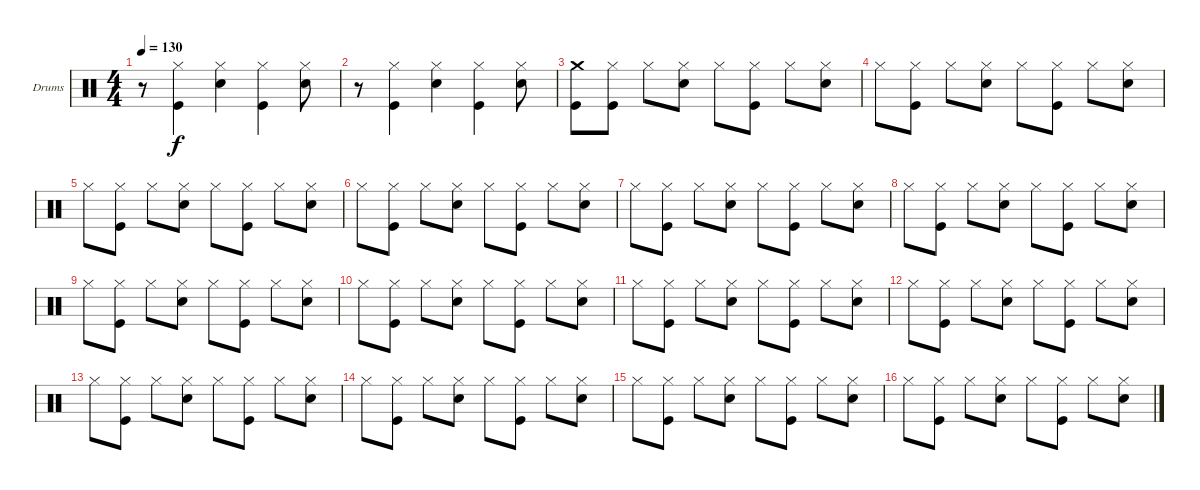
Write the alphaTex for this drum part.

\bracketExtendMode groupsimilarinstruments
\firstSystemTrackNameOrientation horizontal
\otherSystemsTrackNameOrientation horizontal
\track ("Drumkit" "Drums") {instrument percussion}
\staff {score}
\articulation defaults
\ts (4 4)
\tempo 130
\clef neutral
\ks c
r.8{dy f} ("Hi-Hat (closed)" "Kick (hit)").4 ("Hi-Hat (closed)" "Snare (hit) 2").4 ("Hi-Hat (closed)" "Kick (hit)").4 ("Hi-Hat (closed)" "Snare (hit) 2").8 |
r.8 ("Hi-Hat (closed)" "Kick (hit)").4 ("Hi-Hat (closed)" "Snare (hit) 2").4 ("Hi-Hat (closed)" "Kick (hit)").4 ("Hi-Hat (closed)" "Snare (hit) 2").8 |
("Crash medium (hit)" "Kick (hit)").8 ("Hi-Hat (closed)" "Kick (hit)").8 "Hi-Hat (closed)".8 ("Hi-Hat (closed)" "Snare (hit) 2").8 "Hi-Hat (closed)".8 ("Hi-Hat (closed)" "Kick (hit)").8 "Hi-Hat (closed)".8 ("Hi-Hat (closed)" "Snare (hit) 2").8 |
"Hi-Hat (closed)".8 ("Hi-Hat (closed)" "Kick (hit)").8 "Hi-Hat (closed)".8 ("Hi-Hat (closed)" "Snare (hit) 2").8 "Hi-Hat (closed)".8 ("Hi-Hat (closed)" "Kick (hit)").8 "Hi-Hat (closed)".8 ("Hi-Hat (closed)" "Snare (hit) 2").8 |
"Hi-Hat (closed)".8 ("Hi-Hat (closed)" "Kick (hit)").8 "Hi-Hat (closed)".8 ("Hi-Hat (closed)" "Snare (hit) 2").8 "Hi-Hat (closed)".8 ("Hi-Hat (closed)" "Kick (hit)").8 "Hi-Hat (closed)".8 ("Hi-Hat (closed)" "Snare (hit) 2").8 |
"Hi-Hat (closed)".8 ("Hi-Hat (closed)" "Kick (hit)").8 "Hi-Hat (closed)".8 ("Hi-Hat (closed)" "Snare (hit) 2").8 "Hi-Hat (closed)".8 ("Hi-Hat (closed)" "Kick (hit)").8 "Hi-Hat (closed)".8 ("Hi-Hat (closed)" "Snare (hit) 2").8 |
"Hi-Hat (closed)".8 ("Hi-Hat (closed)" "Kick (hit)").8 "Hi-Hat (closed)".8 ("Hi-Hat (closed)" "Snare (hit) 2").8 "Hi-Hat (closed)".8 ("Hi-Hat (closed)" "Kick (hit)").8 "Hi-Hat (closed)".8 ("Hi-Hat (closed)" "Snare (hit) 2").8 |
"Hi-Hat (closed)".8 ("Hi-Hat (closed)" "Kick (hit)").8 "Hi-Hat (closed)".8 ("Hi-Hat (closed)" "Snare (hit) 2").8 "Hi-Hat (closed)".8 ("Hi-Hat (closed)" "Kick (hit)").8 "Hi-Hat (closed)".8 ("Hi-Hat (closed)" "Snare (hit) 2").8 |
"Hi-Hat (closed)".8 ("Hi-Hat (closed)" "Kick (hit)").8 "Hi-Hat (closed)".8 ("Hi-Hat (closed)" "Snare (hit) 2").8 "Hi-Hat (closed)".8 ("Hi-Hat (closed)" "Kick (hit)").8 "Hi-Hat (closed)".8 ("Hi-Hat (closed)" "Snare (hit) 2").8 |
"Hi-Hat (closed)".8 ("Hi-Hat (closed)" "Kick (hit)").8 "Hi-Hat (closed)".8 ("Hi-Hat (closed)" "Snare (hit) 2").8 "Hi-Hat (closed)".8 ("Hi-Hat (closed)" "Kick (hit)").8 "Hi-Hat (closed)".8 ("Hi-Hat (closed)" "Snare (hit) 2").8 |
"Hi-Hat (closed)".8 ("Hi-Hat (closed)" "Kick (hit)").8 "Hi-Hat (closed)".8 ("Hi-Hat (closed)" "Snare (hit) 2").8 "Hi-Hat (closed)".8 ("Hi-Hat (closed)" "Kick (hit)").8 "Hi-Hat (closed)".8 ("Hi-Hat (closed)" "Snare (hit) 2").8 |
"Hi-Hat (closed)".8 ("Hi-Hat (closed)" "Kick (hit)").8 "Hi-Hat (closed)".8 ("Hi-Hat (closed)" "Snare (hit) 2").8 "Hi-Hat (closed)".8 ("Hi-Hat (closed)" "Kick (hit)").8 "Hi-Hat (closed)".8 ("Hi-Hat (closed)" "Snare (hit) 2").8 |
"Hi-Hat (closed)".8 ("Hi-Hat (closed)" "Kick (hit)").8 "Hi-Hat (closed)".8 ("Hi-Hat (closed)" "Snare (hit) 2").8 "Hi-Hat (closed)".8 ("Hi-Hat (closed)" "Kick (hit)").8 "Hi-Hat (closed)".8 ("Hi-Hat (closed)" "Snare (hit) 2").8 |
"Hi-Hat (closed)".8 ("Hi-Hat (closed)" "Kick (hit)").8 "Hi-Hat (closed)".8 ("Hi-Hat (closed)" "Snare (hit) 2").8 "Hi-Hat (closed)".8 ("Hi-Hat (closed)" "Kick (hit)").8 "Hi-Hat (closed)".8 ("Hi-Hat (closed)" "Snare (hit) 2").8 |
"Hi-Hat (closed)".8 ("Hi-Hat (closed)" "Kick (hit)").8 "Hi-Hat (closed)".8 ("Hi-Hat (closed)" "Snare (hit) 2").8 "Hi-Hat (closed)".8 ("Hi-Hat (closed)" "Kick (hit)").8 "Hi-Hat (closed)".8 ("Hi-Hat (closed)" "Snare (hit) 2").8 |
"Hi-Hat (closed)".8 ("Hi-Hat (closed)" "Kick (hit)").8 "Hi-Hat (closed)".8 ("Hi-Hat (closed)" "Snare (hit) 2").8 "Hi-Hat (closed)".8 ("Hi-Hat (closed)" "Kick (hit)").8 "Hi-Hat (closed)".8 ("Hi-Hat (closed)" "Snare (hit) 2").8
